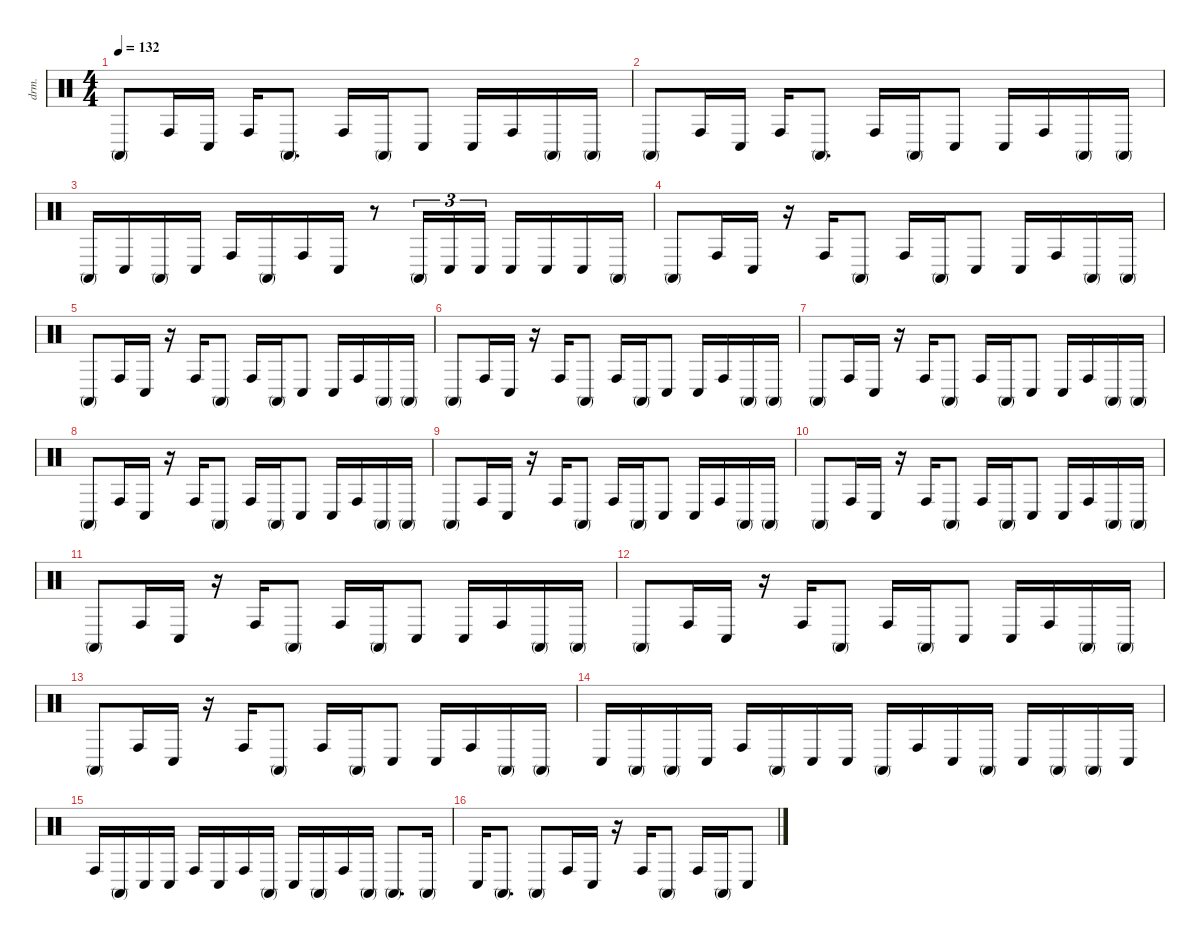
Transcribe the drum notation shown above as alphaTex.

\defaultSystemsLayout 4
\hideDynamics
\bracketExtendMode nobrackets
\track ("congas" "drm.") {instrument percussion}
\staff {score}
\articulation defaults
\ts (4 4)
\tempo 132
\clef neutral
\ks c "Conga high (mute)".8{dy f} "Conga high (hit)".16 "Conga low (hit)".16 "Conga high (hit)".16 "Conga high (mute)".8{d} "Conga high (hit)".16 "Conga high (mute)".16 "Conga low (hit)".8 "Conga low (hit)".16 "Conga high (hit)".16 "Conga high (mute)".16 "Conga high (mute)".16
|
"Conga high (mute)".8 "Conga high (hit)".16 "Conga low (hit)".16 "Conga high (hit)".16 "Conga high (mute)".8{d} "Conga high (hit)".16 "Conga high (mute)".16 "Conga low (hit)".8 "Conga low (hit)".16 "Conga high (hit)".16 "Conga high (mute)".16 "Conga high (mute)".16 |
"Conga high (mute)".16 "Conga low (hit)".16 "Conga high (mute)".16 "Conga low (hit)".16 "Conga high (hit)".16 "Conga high (mute)".16 "Conga high (hit)".16 "Conga low (hit)".16 r.8 "Conga high (mute)".16{tu (3 2)} "Conga low (hit)".16{tu (3 2)} "Conga low (hit)".16{tu (3 2)} "Conga low (hit)".16 "Conga low (hit)".16 "Conga low (hit)".16 "Conga high (mute)".16 |
"Conga high (mute)".8 "Conga high (hit)".16 "Conga low (hit)".16 r.16 "Conga high (hit)".16 "Conga high (mute)".8 "Conga high (hit)".16 "Conga high (mute)".16 "Conga low (hit)".8 "Conga low (hit)".16 "Conga high (hit)".16 "Conga high (mute)".16 "Conga high (mute)".16 |
"Conga high (mute)".8 "Conga high (hit)".16 "Conga low (hit)".16 r.16 "Conga high (hit)".16 "Conga high (mute)".8 "Conga high (hit)".16 "Conga high (mute)".16 "Conga low (hit)".8 "Conga low (hit)".16 "Conga high (hit)".16 "Conga high (mute)".16 "Conga high (mute)".16 |
"Conga high (mute)".8 "Conga high (hit)".16 "Conga low (hit)".16 r.16 "Conga high (hit)".16 "Conga high (mute)".8 "Conga high (hit)".16 "Conga high (mute)".16 "Conga low (hit)".8 "Conga low (hit)".16 "Conga high (hit)".16 "Conga high (mute)".16 "Conga high (mute)".16 |
"Conga high (mute)".8 "Conga high (hit)".16 "Conga low (hit)".16 r.16 "Conga high (hit)".16 "Conga high (mute)".8 "Conga high (hit)".16 "Conga high (mute)".16 "Conga low (hit)".8 "Conga low (hit)".16 "Conga high (hit)".16 "Conga high (mute)".16 "Conga high (mute)".16 |
"Conga high (mute)".8 "Conga high (hit)".16 "Conga low (hit)".16 r.16 "Conga high (hit)".16 "Conga high (mute)".8 "Conga high (hit)".16 "Conga high (mute)".16 "Conga low (hit)".8 "Conga low (hit)".16 "Conga high (hit)".16 "Conga high (mute)".16 "Conga high (mute)".16 |
"Conga high (mute)".8 "Conga high (hit)".16 "Conga low (hit)".16 r.16 "Conga high (hit)".16 "Conga high (mute)".8 "Conga high (hit)".16 "Conga high (mute)".16 "Conga low (hit)".8 "Conga low (hit)".16 "Conga high (hit)".16 "Conga high (mute)".16 "Conga high (mute)".16 |
"Conga high (mute)".8 "Conga high (hit)".16 "Conga low (hit)".16 r.16 "Conga high (hit)".16 "Conga high (mute)".8 "Conga high (hit)".16 "Conga high (mute)".16 "Conga low (hit)".8 "Conga low (hit)".16 "Conga high (hit)".16 "Conga high (mute)".16 "Conga high (mute)".16 |
"Conga high (mute)".8 "Conga high (hit)".16 "Conga low (hit)".16 r.16 "Conga high (hit)".16 "Conga high (mute)".8 "Conga high (hit)".16 "Conga high (mute)".16 "Conga low (hit)".8 "Conga low (hit)".16 "Conga high (hit)".16 "Conga high (mute)".16 "Conga high (mute)".16 |
"Conga high (mute)".8 "Conga high (hit)".16 "Conga low (hit)".16 r.16 "Conga high (hit)".16 "Conga high (mute)".8 "Conga high (hit)".16 "Conga high (mute)".16 "Conga low (hit)".8 "Conga low (hit)".16 "Conga high (hit)".16 "Conga high (mute)".16 "Conga high (mute)".16 |
"Conga high (mute)".8 "Conga high (hit)".16 "Conga low (hit)".16 r.16 "Conga high (hit)".16 "Conga high (mute)".8 "Conga high (hit)".16 "Conga high (mute)".16 "Conga low (hit)".8 "Conga low (hit)".16 "Conga high (hit)".16 "Conga high (mute)".16 "Conga high (mute)".16 |
"Conga low (hit)".16 "Conga high (mute)".16 "Conga high (mute)".16 "Conga low (hit)".16 "Conga high (hit)".16 "Conga high (mute)".16 "Conga low (hit)".16 "Conga low (hit)".16 "Conga high (mute)".16 "Conga high (hit)".16 "Conga low (hit)".16 "Conga high (mute)".16 "Conga low (hit)".16 "Conga high (mute)".16 "Conga high (mute)".16 "Conga low (hit)".16 |
"Conga high (hit)".16 "Conga high (mute)".16 "Conga low (hit)".16 "Conga low (hit)".16 "Conga high (hit)".16 "Conga low (hit)".16 "Conga high (hit)".16 "Conga high (mute)".16 "Conga low (hit)".16 "Conga high (mute)".16 "Conga high (hit)".16 "Conga high (mute)".16 "Conga high (mute)".8{d} "Conga high (mute)".16 |
"Conga low (hit)".16 "Conga high (mute)".8{d} "Conga high (mute)".8 "Conga high (hit)".16 "Conga low (hit)".16 r.16 "Conga high (hit)".16 "Conga high (mute)".8 "Conga high (hit)".16 "Conga high (mute)".16 "Conga low (hit)".8
